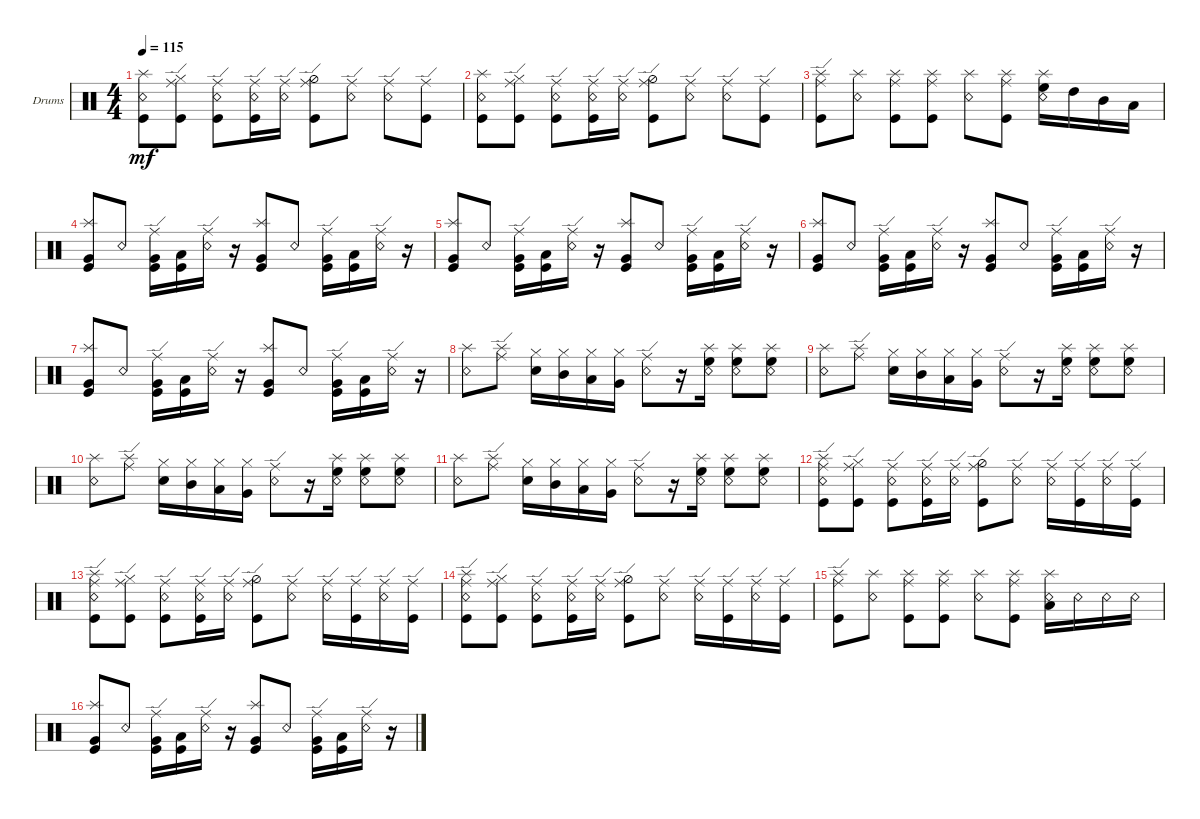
\defaultSystemsLayout 4
\bracketExtendMode groupsimilarinstruments
\firstSystemTrackNameOrientation horizontal
\otherSystemsTrackNameOrientation horizontal
\track ("Drumkit" "Drums") {instrument percussion}
\staff {score}
\articulation defaults
\ts (4 4)
\tempo 115
\clef neutral
\scale
0.333333
\ks c
("Kick (hit)" "Splash (hit)" "Snare (rim shot)").8{dy mf} ("Kick (hit)" "Hi-Hat (closed)" "Ride (edge)").8 ("Kick (hit)" "Snare (rim shot)" "Ride (edge)").8 ("Kick (hit)" "Snare (rim shot)" "Ride (edge)").16 ("Snare (rim shot)" "Ride (edge)").16 ("Kick (hit)" "Ride (edge)" "Hi-Hat (half)").8 ("Snare (rim shot)" "Ride (edge)").8 ("Snare (rim shot)" "Ride (edge)").8 ("Kick (hit)" "Ride (edge)").8 |
\scale
0.333333 ("Kick (hit)" "Splash (hit)" "Snare (rim shot)").8 ("Kick (hit)" "Hi-Hat (closed)" "Ride (edge)").8 ("Kick (hit)" "Snare (rim shot)" "Ride (edge)").8 ("Kick (hit)" "Snare (rim shot)" "Ride (edge)").16 ("Snare (rim shot)" "Ride (edge)").16 ("Kick (hit)" "Ride (edge)" "Hi-Hat (half)").8 ("Snare (rim shot)" "Ride (edge)").8 ("Snare (rim shot)" "Ride (edge)").8 ("Kick (hit)" "Ride (edge)").8 |
\scale
0.333333 ("Ride (edge)" "Kick (hit)" "Splash (hit)").8 ("Snare (rim shot)" "Splash (hit)").8 ("Ride (middle)" "Kick (hit)" "Splash (hit)").8 ("Ride (middle)" "Kick (hit)" "Splash (hit)").8 ("Snare (rim shot)" "Splash (hit)").8 ("Ride (middle)" "Kick (hit)" "Splash (hit)").8 ("Snare (rim shot)" "Splash (hit)" "High Floor Tom (hit)").16 "High Tom (hit)".16 "Mid Tom (hit)".16 "Low Tom (hit)".16 |
\scale
0.333333 ("Splash (hit)" "Kick (hit)" "Very Low Tom (hit)").8 "Snare (rim shot)".8 ("Ride (edge)" "Kick (hit)" "Very Low Tom (hit)").16 ("Kick (hit)" "Low Tom (hit)").16 ("Snare (rim shot)" "Ride (edge)").16 r.16 ("Splash (hit)" "Kick (hit)" "Very Low Tom (hit)").8 "Snare (rim shot)".8 ("Ride (edge)" "Kick (hit)" "Very Low Tom (hit)").16 ("Kick (hit)" "Low Tom (hit)").16 ("Snare (rim shot)" "Ride (edge)").16 r.16 |
\scale
0.333333 ("Splash (hit)" "Kick (hit)" "Very Low Tom (hit)").8 "Snare (rim shot)".8 ("Ride (edge)" "Kick (hit)" "Very Low Tom (hit)").16 ("Kick (hit)" "Low Tom (hit)").16 ("Snare (rim shot)" "Ride (edge)").16 r.16 ("Splash (hit)" "Kick (hit)" "Very Low Tom (hit)").8 "Snare (rim shot)".8 ("Ride (edge)" "Kick (hit)" "Very Low Tom (hit)").16 ("Kick (hit)" "Low Tom (hit)").16 ("Snare (rim shot)" "Ride (edge)").16 r.16 |
\scale
0.333333 ("Splash (hit)" "Kick (hit)" "Very Low Tom (hit)").8 "Snare (rim shot)".8 ("Ride (edge)" "Kick (hit)" "Very Low Tom (hit)").16 ("Kick (hit)" "Low Tom (hit)").16 ("Snare (rim shot)" "Ride (edge)").16 r.16 ("Splash (hit)" "Kick (hit)" "Very Low Tom (hit)").8 "Snare (rim shot)".8 ("Ride (edge)" "Kick (hit)" "Very Low Tom (hit)").16 ("Kick (hit)" "Low Tom (hit)").16 ("Snare (rim shot)" "Ride (edge)").16 r.16 |
\scale
0.333333 ("Splash (hit)" "Kick (hit)" "Very Low Tom (hit)").8 "Snare (rim shot)".8 ("Ride (edge)" "Kick (hit)" "Very Low Tom (hit)").16 ("Kick (hit)" "Low Tom (hit)").16 ("Snare (rim shot)" "Ride (edge)").16 r.16 ("Splash (hit)" "Kick (hit)" "Very Low Tom (hit)").8 "Snare (rim shot)".8 ("Ride (edge)" "Kick (hit)" "Very Low Tom (hit)").16 ("Kick (hit)" "Low Tom (hit)").16 ("Snare (rim shot)" "Ride (edge)").16 r.16 |
\scale
0.333333 ("Snare (rim shot)" "Splash (hit)").8 ("Ride (edge)" "Splash (hit)").8 ("Snare (hit) 2" "Hi-Hat (closed)").16 ("Mid Tom (hit)" "Hi-Hat (closed)").16 ("Low Tom (hit)" "Hi-Hat (closed)").16 ("Hi-Hat (closed)" "Very Low Tom (hit)").16 ("Snare (rim shot)" "Ride (edge)").8 r.16 ("Snare (rim shot)" "High Floor Tom (hit)" "Splash (hit)").16 ("Snare (rim shot)" "High Floor Tom (hit)" "Splash (hit)").8 ("High Floor Tom (hit)" "Snare (rim shot)" "Splash (hit)").8 |
\scale
0.333333 ("Snare (rim shot)" "Splash (hit)").8 ("Ride (edge)" "Splash (hit)").8 ("Snare (hit) 2" "Hi-Hat (closed)").16 ("Mid Tom (hit)" "Hi-Hat (closed)").16 ("Low Tom (hit)" "Hi-Hat (closed)").16 ("Hi-Hat (closed)" "Very Low Tom (hit)").16 ("Snare (rim shot)" "Ride (edge)").8 r.16 ("Snare (rim shot)" "High Floor Tom (hit)" "Splash (hit)").16 ("Snare (rim shot)" "High Floor Tom (hit)" "Splash (hit)").8 ("High Floor Tom (hit)" "Snare (rim shot)" "Splash (hit)").8 |
\scale
0.333333 ("Snare (rim shot)" "Splash (hit)").8 ("Ride (edge)" "Splash (hit)").8 ("Snare (hit) 2" "Hi-Hat (closed)").16 ("Mid Tom (hit)" "Hi-Hat (closed)").16 ("Low Tom (hit)" "Hi-Hat (closed)").16 ("Hi-Hat (closed)" "Very Low Tom (hit)").16 ("Snare (rim shot)" "Ride (edge)").8 r.16 ("Snare (rim shot)" "High Floor Tom (hit)" "Splash (hit)").16 ("Snare (rim shot)" "High Floor Tom (hit)" "Splash (hit)").8 ("High Floor Tom (hit)" "Snare (rim shot)" "Splash (hit)").8 |
\scale
0.333333 ("Snare (rim shot)" "Splash (hit)").8 ("Ride (edge)" "Splash (hit)").8 ("Snare (hit) 2" "Hi-Hat (closed)").16 ("Mid Tom (hit)" "Hi-Hat (closed)").16 ("Low Tom (hit)" "Hi-Hat (closed)").16 ("Hi-Hat (closed)" "Very Low Tom (hit)").16 ("Snare (rim shot)" "Ride (edge)").8 r.16 ("Snare (rim shot)" "High Floor Tom (hit)" "Splash (hit)").16 ("Snare (rim shot)" "High Floor Tom (hit)" "Splash (hit)").8 ("High Floor Tom (hit)" "Snare (rim shot)" "Splash (hit)").8 |
\scale
0.333333 ("Ride (edge)" "Kick (hit)" "Splash (hit)" "Snare (rim shot)").8 ("Kick (hit)" "Hi-Hat (closed)" "Ride (edge)").8 ("Kick (hit)" "Snare (rim shot)" "Ride (edge)").8 ("Kick (hit)" "Snare (rim shot)" "Ride (edge)").16 ("Snare (rim shot)" "Ride (edge)").16 ("Kick (hit)" "Ride (edge)" "Hi-Hat (half)").8 ("Snare (rim shot)" "Ride (edge)").8 ("Snare (rim shot)" "Ride (edge)").16 ("Kick (hit)" "Ride (edge)").16 ("Snare (rim shot)" "Ride (edge)").16 ("Kick (hit)" "Ride (edge)").16 |
\scale
0.333333 ("Ride (edge)" "Kick (hit)" "Splash (hit)" "Snare (rim shot)").8 ("Kick (hit)" "Hi-Hat (closed)" "Ride (edge)").8 ("Kick (hit)" "Snare (rim shot)" "Ride (edge)").8 ("Kick (hit)" "Snare (rim shot)" "Ride (edge)").16 ("Snare (rim shot)" "Ride (edge)").16 ("Kick (hit)" "Ride (edge)" "Hi-Hat (half)").8 ("Snare (rim shot)" "Ride (edge)").8 ("Snare (rim shot)" "Ride (edge)").16 ("Kick (hit)" "Ride (edge)").16 ("Snare (rim shot)" "Ride (edge)").16 ("Kick (hit)" "Ride (edge)").16 |
\scale
0.333333 ("Ride (edge)" "Kick (hit)" "Splash (hit)" "Snare (rim shot)").8 ("Kick (hit)" "Hi-Hat (closed)" "Ride (edge)").8 ("Kick (hit)" "Snare (rim shot)" "Ride (edge)").8 ("Kick (hit)" "Snare (rim shot)" "Ride (edge)").16 ("Snare (rim shot)" "Ride (edge)").16 ("Kick (hit)" "Ride (edge)" "Hi-Hat (half)").8 ("Snare (rim shot)" "Ride (edge)").8 ("Snare (rim shot)" "Ride (edge)").16 ("Kick (hit)" "Ride (edge)").16 ("Snare (rim shot)" "Ride (edge)").16 ("Kick (hit)" "Ride (edge)").16 |
\scale
0.333333 ("Ride (edge)" "Kick (hit)" "Splash (hit)").8 ("Snare (rim shot)" "Splash (hit)").8 ("Ride (middle)" "Kick (hit)" "Splash (hit)").8 ("Ride (middle)" "Kick (hit)" "Splash (hit)").8 ("Snare (rim shot)" "Splash (hit)").8 ("Ride (middle)" "Kick (hit)" "Splash (hit)").8 ("Snare (rim shot)" "Splash (hit)" "Low Tom (hit)").16 "Snare (rim shot)".16 "Snare (rim shot)".16 "Snare (rim shot)".16 |
\scale
0.333333 ("Splash (hit)" "Kick (hit)" "Very Low Tom (hit)").8 "Snare (rim shot)".8 ("Ride (edge)" "Kick (hit)" "Very Low Tom (hit)").16 ("Kick (hit)" "Low Tom (hit)").16 ("Snare (rim shot)" "Ride (edge)").16 r.16 ("Splash (hit)" "Kick (hit)" "Very Low Tom (hit)").8 "Snare (rim shot)".8 ("Ride (edge)" "Kick (hit)" "Very Low Tom (hit)").16 ("Kick (hit)" "Low Tom (hit)").16 ("Snare (rim shot)" "Ride (edge)").16 r.16
